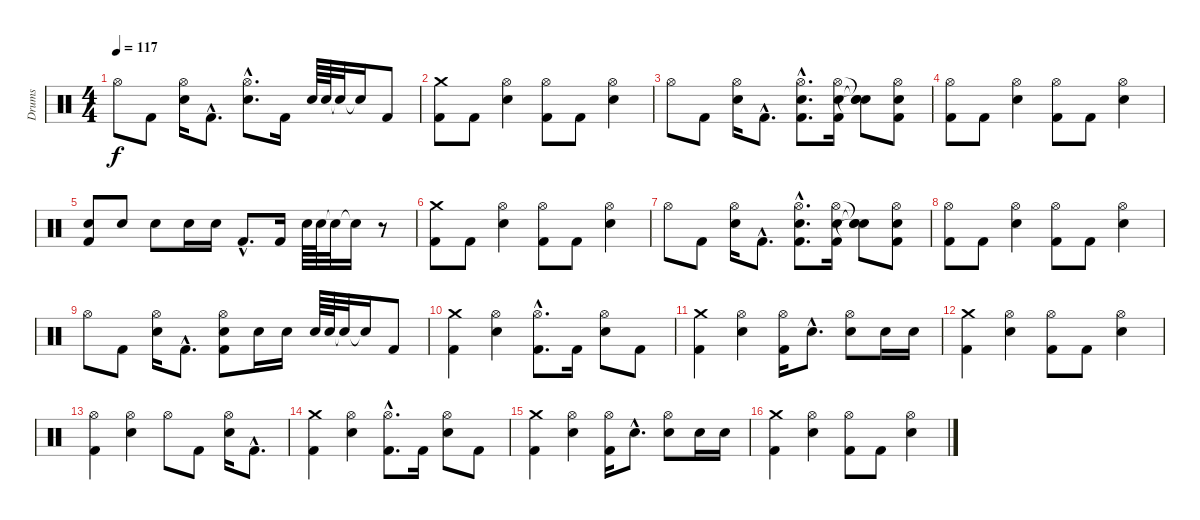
\track ("Drums" "Drums") {instrument percussion}
\staff {score}
\articulation defaults
\ts (4 4)
\tempo 117
\clef neutral
\ks c "Hi-Hat (open)".8{dy f} "Kick (hit) 2".8
("Hi-Hat (open)" "Snare (hit) 2").16 "Kick (hit) 2"{hac}.8{d} ("Hi-Hat (open)"{hac} "Snare (hit) 2"{hac}).8{d} "Kick (hit) 2".16 "Snare (hit) 2".64 "Snare (hit) 2".64 "Snare (hit)"{t}.32 "Snare (hit)"{t}.16 "Kick (hit) 2".8 |
("Crash medium (hit)" "Kick (hit) 2").8 "Kick (hit) 2".8 ("Hi-Hat (open)" "Snare (hit) 2").4 ("Hi-Hat (open)" "Kick (hit) 2").8 "Kick (hit) 2".8 ("Hi-Hat (open)" "Snare (hit) 2").4 |
"Hi-Hat (open)".8 "Kick (hit) 2".8 ("Hi-Hat (open)" "Snare (hit) 2").16 "Kick (hit) 2"{hac}.8{d} ("Hi-Hat (open)"{hac} "Snare (hit) 2"{hac} "Kick (hit) 2"{hac}).8{d} ("Hi-Hat (open)" "Snare (hit) 2" "Kick (hit) 2").16 ("Snare (hit)"{t} "Snare (hit)"{t} "Snare (hit)"{t}).8 ("Hi-Hat (open)" "Snare (hit) 2" "Kick (hit) 2").8 |
("Hi-Hat (open)" "Kick (hit) 2").8 "Kick (hit) 2".8 ("Hi-Hat (open)" "Snare (hit) 2").4 ("Hi-Hat (open)" "Kick (hit) 2").8 "Kick (hit) 2".8 ("Hi-Hat (open)" "Snare (hit) 2").4 |
("Snare (hit) 2" "Kick (hit) 2").8 "Snare (hit) 2".8 "Snare (hit) 2".8 "Snare (hit) 2".16 "Snare (hit) 2".16 "Kick (hit) 2"{hac}.8{d} "Kick (hit) 2".16 "Snare (hit) 2".64 "Snare (hit) 2".64 "Snare (hit)"{t}.32 "Snare (hit)"{t}.16 r.8 |
("Crash medium (hit)" "Kick (hit) 2").8 "Kick (hit) 2".8 ("Hi-Hat (open)" "Snare (hit) 2").4 ("Hi-Hat (open)" "Kick (hit) 2").8 "Kick (hit) 2".8 ("Hi-Hat (open)" "Snare (hit) 2").4 |
"Hi-Hat (open)".8 "Kick (hit) 2".8 ("Hi-Hat (open)" "Snare (hit) 2").16 "Kick (hit) 2"{hac}.8{d} ("Hi-Hat (open)"{hac} "Snare (hit) 2"{hac} "Kick (hit) 2"{hac}).8{d} ("Hi-Hat (open)" "Snare (hit) 2" "Kick (hit) 2").16 ("Snare (hit)"{t} "Snare (hit)"{t} "Snare (hit)"{t}).8 ("Hi-Hat (open)" "Snare (hit) 2" "Kick (hit) 2").8 |
("Hi-Hat (open)" "Kick (hit) 2").8 "Kick (hit) 2".8 ("Hi-Hat (open)" "Snare (hit) 2").4 ("Hi-Hat (open)" "Kick (hit) 2").8 "Kick (hit) 2".8 ("Hi-Hat (open)" "Snare (hit) 2").4 |
"Hi-Hat (open)".8 "Kick (hit) 2".8 ("Hi-Hat (open)" "Snare (hit) 2").16 "Kick (hit) 2"{hac}.8{d} ("Hi-Hat (open)" "Snare (hit) 2" "Kick (hit) 2").8 "Snare (hit) 2".16 "Snare (hit) 2".16 "Snare (hit) 2".64 "Snare (hit) 2".64 "Snare (hit)"{t}.32 "Snare (hit)"{t}.16 "Kick (hit) 2".8 |
("Crash medium (hit)" "Kick (hit) 2").4 ("Hi-Hat (open)" "Snare (hit) 2").4 ("Hi-Hat (open)"{hac} "Kick (hit) 2"{hac}).8{d} "Kick (hit) 2".16 ("Hi-Hat (open)" "Snare (hit) 2").8 "Kick (hit) 2".8 |
("Crash medium (hit)" "Kick (hit) 2").4 ("Hi-Hat (open)" "Snare (hit) 2").4 ("Hi-Hat (open)" "Kick (hit) 2").16 "Snare (hit) 2"{hac}.8{d} ("Hi-Hat (open)" "Snare (hit) 2").8 "Snare (hit) 2".16 "Snare (hit) 2".16 |
("Crash medium (hit)" "Kick (hit) 2").4 ("Hi-Hat (open)" "Snare (hit) 2").4 ("Hi-Hat (open)" "Kick (hit) 2").8 "Kick (hit) 2".8 ("Hi-Hat (open)" "Snare (hit) 2").4 |
("Hi-Hat (open)" "Kick (hit) 2").4 ("Hi-Hat (open)" "Snare (hit) 2").4 "Hi-Hat (open)".8 "Kick (hit) 2".8 ("Hi-Hat (open)" "Snare (hit) 2").16 "Kick (hit) 2"{hac}.8{d} |
("Crash medium (hit)" "Kick (hit) 2").4 ("Hi-Hat (open)" "Snare (hit) 2").4 ("Hi-Hat (open)"{hac} "Kick (hit) 2"{hac}).8{d} "Kick (hit) 2".16 ("Hi-Hat (open)" "Snare (hit) 2").8 "Kick (hit) 2".8 |
("Crash medium (hit)" "Kick (hit) 2").4 ("Hi-Hat (open)" "Snare (hit) 2").4 ("Hi-Hat (open)" "Kick (hit) 2").16 "Snare (hit) 2"{hac}.8{d} ("Hi-Hat (open)" "Snare (hit) 2").8 "Snare (hit) 2".16 "Snare (hit) 2".16 |
("Crash medium (hit)" "Kick (hit) 2").4 ("Hi-Hat (open)" "Snare (hit) 2").4 ("Hi-Hat (open)" "Kick (hit) 2").8 "Kick (hit) 2".8 ("Hi-Hat (open)" "Snare (hit) 2").4
